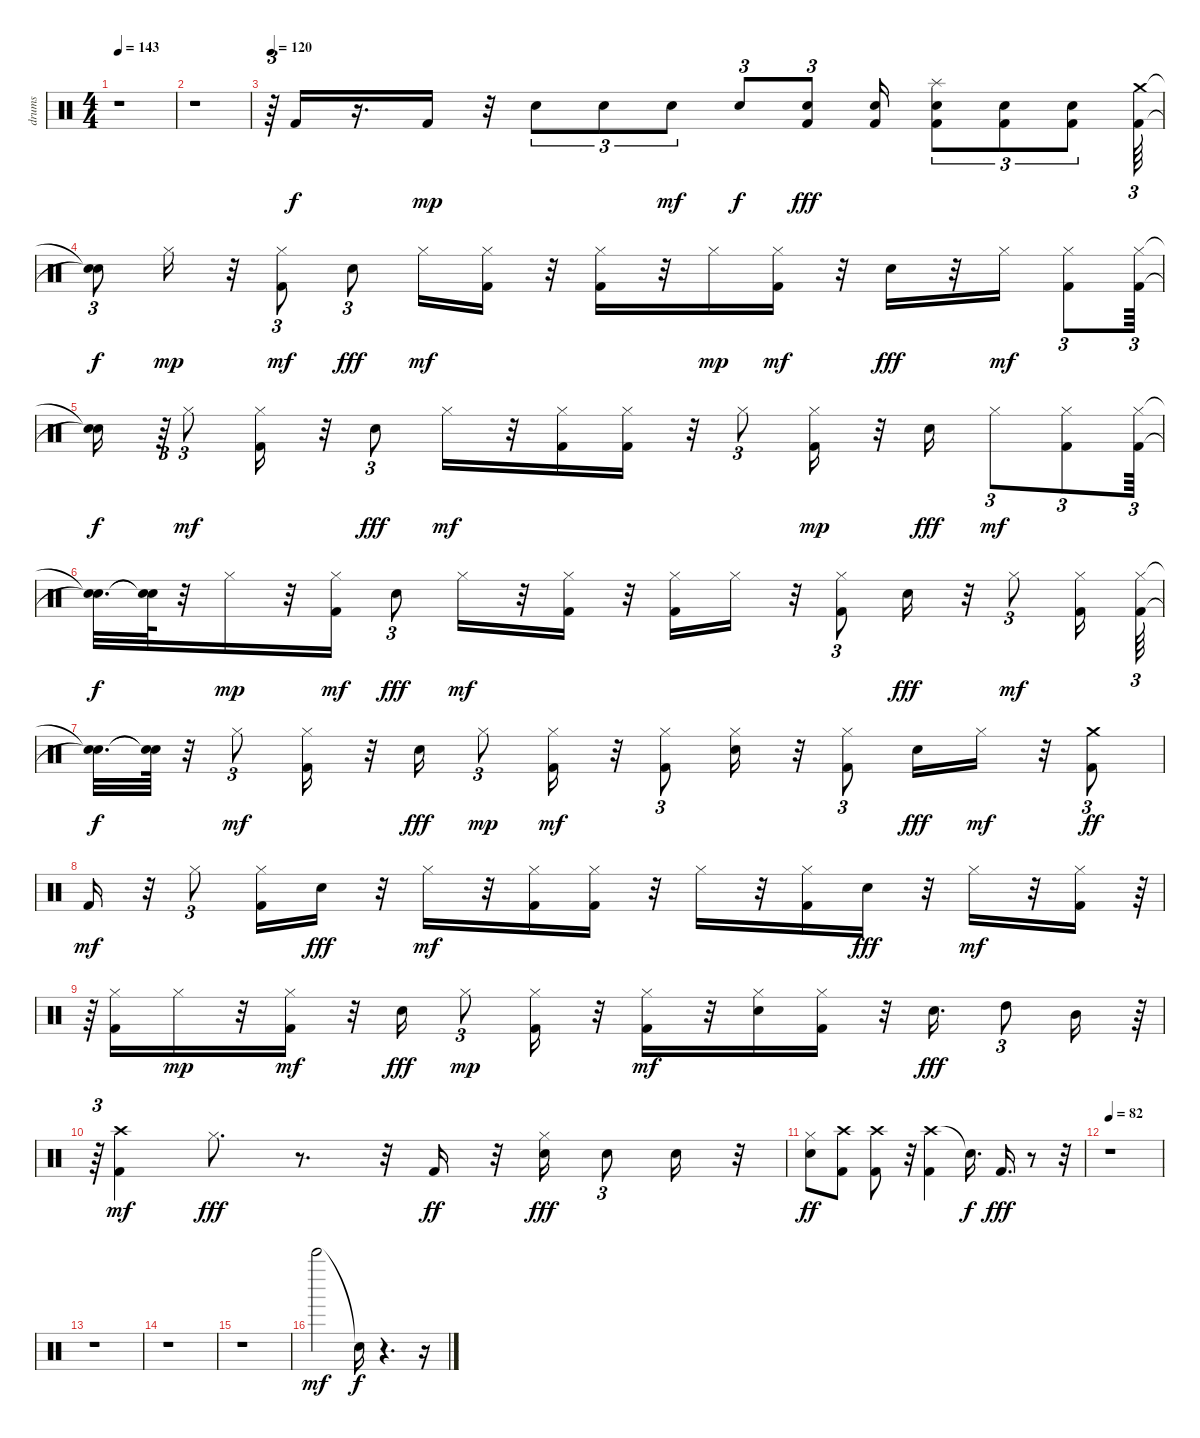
\track ("drums" "drums") {instrument percussion}
\staff {score}
\articulation defaults
\ts (4 4)
\tempo 143
\clef neutral
\ks c
r.1{dy fff} |
r.1 |
\tempo 120
r.64{tu (3 2)} "Kick (hit) 2".16{dy f volume 15} r.16{d} "Kick (hit) 2".16{dy mp volume 16} r.32 "Snare (hit) 2".8{tu (3 2)} "Snare (hit) 2".8{tu (3 2)} "Snare (hit) 2".8{tu (3 2) dy mf} "Snare (hit) 2".8{tu (3 2) dy f} ("Kick (hit) 2" "Snare (hit) 2").8{tu (3 2) dy fff} ("Kick (hit) 2" "Snare (hit) 2").16 ("Snare (hit) 2" "Splash (hit)" "Kick (hit) 2").8{tu (3 2)} ("Kick (hit) 2" "Snare (hit) 2").8{tu (3 2)} ("Snare (hit) 2" "Kick (hit) 2").8{tu (3 2)} ("Kick (hit) 2" "Crash medium (hit)").64{tu (3 2)} |
("Snare (hit)"{t} "Snare (hit)"{t}).8{tu (3 2) dy f} "Hi-Hat (closed)".16{dy mp} r.32 ("Hi-Hat (closed)" "Kick (hit) 2").8{tu (3 2) dy mf} "Snare (hit) 2".8{tu (3 2) dy fff} "Hi-Hat (closed)".16{dy mf} ("Hi-Hat (closed)" "Kick (hit) 2").16 r.32 ("Hi-Hat (closed)" "Kick (hit) 2").16 r.32 "Hi-Hat (closed)".16{dy mp} ("Hi-Hat (closed)" "Kick (hit) 2").16{dy mf} r.32 "Snare (hit) 2".16{dy fff} r.32 "Hi-Hat (closed)".16{dy mf} ("Hi-Hat (closed)" "Kick (hit) 2").8{tu (3 2)} ("Hi-Hat (closed)" "Kick (hit) 2").64{tu (3 2)} |
("Snare (hit)"{t} "Snare (hit)"{t}).16{dy f} r.64{tu (3 2)} "Hi-Hat (closed)".8{tu (3 2) dy mf} ("Kick (hit) 2" "Hi-Hat (closed)").16 r.32 "Snare (hit) 2".8{tu (3 2) dy fff} "Hi-Hat (closed)".16{dy mf} r.32 ("Kick (hit) 2" "Hi-Hat (closed)").16 ("Kick (hit) 2" "Hi-Hat (closed)").16 r.32 "Hi-Hat (closed)".8{tu (3 2)} ("Kick (hit) 2" "Hi-Hat (closed)").16{dy mp} r.32 "Snare (hit) 2".16{dy fff} "Hi-Hat (closed)".8{tu (3 2) dy mf} ("Hi-Hat (closed)" "Kick (hit) 2").8{tu (3 2)} ("Kick (hit) 2" "Hi-Hat (closed)").64{tu (3 2)} |
("Snare (hit)"{t} "Snare (hit)"{t}).32{d dy f} ("Snare (hit)"{t} "Snare (hit)"{t}).64 r.32 "Hi-Hat (closed)".16{dy mp} r.32 ("Hi-Hat (closed)" "Kick (hit) 2").16{dy mf} "Snare (hit) 2".8{tu (3 2) dy fff} "Hi-Hat (closed)".16{dy mf} r.32 ("Hi-Hat (closed)" "Kick (hit) 2").16 r.32 ("Hi-Hat (closed)" "Kick (hit) 2").16 "Hi-Hat (closed)".16 r.32 ("Hi-Hat (closed)" "Kick (hit) 2").8{tu (3 2)} "Snare (hit) 2".16{dy fff} r.32 "Hi-Hat (closed)".8{tu (3 2) dy mf} ("Hi-Hat (closed)" "Kick (hit) 2").16 ("Hi-Hat (closed)" "Kick (hit) 2").64{tu (3 2)} |
("Snare (hit)"{t} "Snare (hit)"{t}).32{d dy f} ("Snare (hit)"{t} "Snare (hit)"{t}).64 r.32 "Hi-Hat (closed)".8{tu (3 2) dy mf} ("Hi-Hat (closed)" "Kick (hit) 2").16 r.32 "Snare (hit) 2".16{dy fff} "Hi-Hat (closed)".8{tu (3 2) dy mp} ("Kick (hit) 2" "Hi-Hat (closed)").16{dy mf} r.32 ("Hi-Hat (closed)" "Kick (hit) 2").8{tu (3 2)} ("Snare (hit) 2" "Hi-Hat (closed)").16 r.32 ("Hi-Hat (closed)" "Kick (hit) 2").8{tu (3 2)} "Snare (hit) 2".16{dy fff} "Hi-Hat (closed)".16{dy mf} r.32 ("Crash medium (hit)" "Kick (hit) 2").8{tu (3 2) dy ff} |
"Kick (hit) 2".16{dy mf} r.32 "Hi-Hat (closed)".8{tu (3 2)} ("Hi-Hat (closed)" "Kick (hit) 2").16 "Snare (hit) 2".16{dy fff} r.32 "Hi-Hat (closed)".16{dy mf} r.32 ("Hi-Hat (closed)" "Kick (hit) 2").16 ("Hi-Hat (closed)" "Kick (hit) 2").16 r.32 "Hi-Hat (closed)".16 r.32 ("Kick (hit) 2" "Hi-Hat (closed)").16 "Snare (hit) 2".16{dy fff} r.32 "Hi-Hat (closed)".16{dy mf} r.32 ("Hi-Hat (closed)" "Kick (hit) 2").16 r.64{tu (3 2)} |
r.64{tu (3 2)} ("Kick (hit) 2" "Hi-Hat (closed)").16 "Hi-Hat (closed)".16{dy mp} r.32 ("Kick (hit) 2" "Hi-Hat (closed)").16{dy mf} r.32 "Snare (hit) 2".16{dy fff} "Hi-Hat (closed)".8{tu (3 2) dy mp} ("Kick (hit) 2" "Hi-Hat (closed)").16 r.32 ("Kick (hit) 2" "Hi-Hat (closed)").16{dy mf} r.32 ("Snare (hit) 2" "Hi-Hat (closed)").16 ("Hi-Hat (closed)" "Kick (hit) 2").16 r.32 "Snare (hit) 2".16{d dy fff} "High Tom (hit)".8{tu (3 2)} "Mid Tom (hit)".16 r.64{tu (3 2)} |
r.64{tu (3 2)} ("Crash high (hit)" "Kick (hit) 2").4{dy mf} "Hi-Hat (closed)".8{d dy fff} r.8{d} r.32 "Kick (hit) 2".16{dy ff} r.32 ("Snare (hit) 2" "Hi-Hat (closed)").16{dy fff} "Snare (hit) 2".8{tu (3 2)} "Snare (hit) 2".16 r.32 |
("Snare (hit) 2" "Hi-Hat (closed)").8{dy ff} ("Crash high (hit)" "Kick (hit) 2").8 ("Crash high (hit)" "Kick (hit) 2").8 r.32 ("Crash high (hit)" "Kick (hit) 2").4 "Snare (hit)"{t}.16{d dy f} "Kick (hit) 2".16{d dy fff} r.8 r.32 |
\tempo 82
r.1 |
r.1 |
r.1 |
r.1 |
"Bell Tree (hit)".2{dy mf} "Snare (hit)"{t}.16{dy f} r.4{d} r.16
